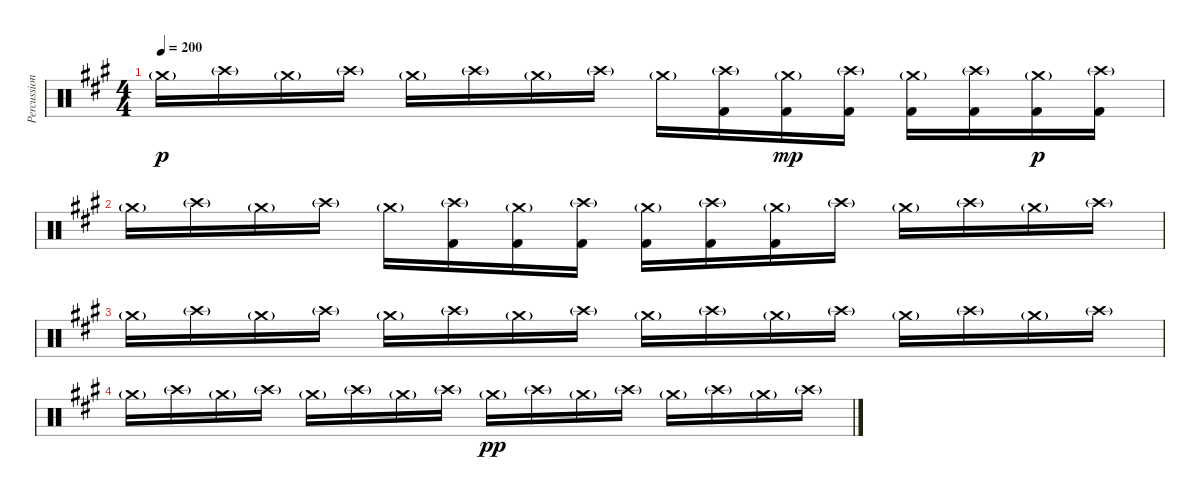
\track ("Percussion" "Percussion") {instrument percussion}
\staff {score}
\articulation defaults
\ts (4 4)
\tempo 200
\clef neutral
\ks f#minor "Crash medium (hit)"{g}.16{dy p volume 3} "Crash high (hit)"{g}.16 "Crash medium (hit)"{g}.16 "Crash high (hit)"{g}.16 "Crash medium (hit)"{g}.16 "Crash high (hit)"{g}.16 "Crash medium (hit)"{g}.16 "Crash high (hit)"{g}.16 "Crash medium (hit)"{g}.16
("Crash high (hit)"{g} "Kick (hit) 2").16 ("Crash medium (hit)"{g} "Kick (hit) 2").16{dy mp} ("Crash high (hit)"{g} "Kick (hit) 2").16 ("Crash medium (hit)"{g} "Kick (hit) 2").16 ("Crash high (hit)"{g} "Kick (hit) 2").16 ("Crash medium (hit)"{g} "Kick (hit) 2").16{dy p} ("Crash high (hit)"{g} "Kick (hit) 2").16 |
"Crash medium (hit)"{g}.16 "Crash high (hit)"{g}.16 "Crash medium (hit)"{g}.16 "Crash high (hit)"{g}.16 "Crash medium (hit)"{g}.16 ("Crash high (hit)"{g} "Kick (hit) 2").16 ("Crash medium (hit)"{g} "Kick (hit) 2").16 ("Crash high (hit)"{g} "Kick (hit) 2").16 ("Crash medium (hit)"{g} "Kick (hit) 2").16 ("Crash high (hit)"{g} "Kick (hit) 2").16 ("Crash medium (hit)"{g} "Kick (hit) 2").16 "Crash high (hit)"{g}.16 "Crash medium (hit)"{g}.16 "Crash high (hit)"{g}.16 "Crash medium (hit)"{g}.16 "Crash high (hit)"{g}.16 |
"Crash medium (hit)"{g}.16 "Crash high (hit)"{g}.16 "Crash medium (hit)"{g}.16 "Crash high (hit)"{g}.16 "Crash medium (hit)"{g}.16 "Crash high (hit)"{g}.16 "Crash medium (hit)"{g}.16 "Crash high (hit)"{g}.16 "Crash medium (hit)"{g}.16 "Crash high (hit)"{g}.16 "Crash medium (hit)"{g}.16 "Crash high (hit)"{g}.16 "Crash medium (hit)"{g}.16 "Crash high (hit)"{g}.16 "Crash medium (hit)"{g}.16 "Crash high (hit)"{g}.16 |
"Crash medium (hit)"{g}.16 "Crash high (hit)"{g}.16 "Crash medium (hit)"{g}.16 "Crash high (hit)"{g}.16 "Crash medium (hit)"{g}.16 "Crash high (hit)"{g}.16 "Crash medium (hit)"{g}.16 "Crash high (hit)"{g}.16 "Crash medium (hit)"{g}.16{dy pp} "Crash high (hit)"{g}.16 "Crash medium (hit)"{g}.16 "Crash high (hit)"{g}.16 "Crash medium (hit)"{g}.16 "Crash high (hit)"{g}.16 "Crash medium (hit)"{g}.16 "Crash high (hit)"{g}.16
